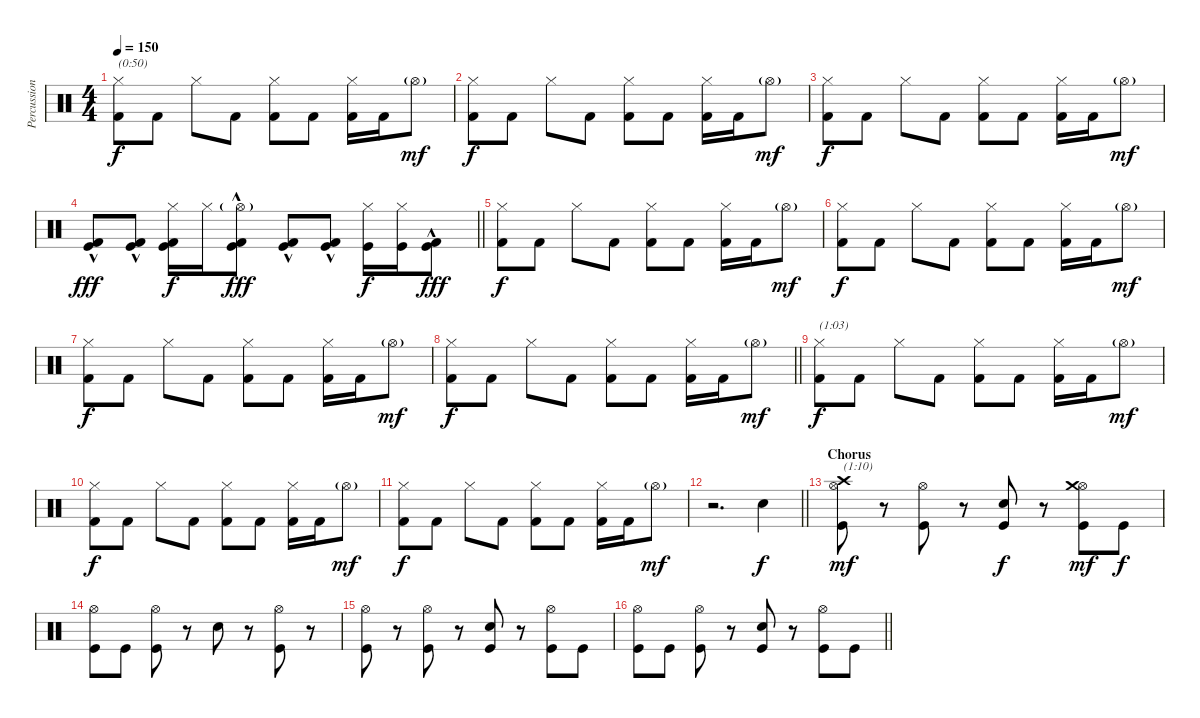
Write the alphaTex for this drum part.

\track ("Percussion" "Percussion") {instrument percussion}
\staff {score}
\articulation defaults
\ts (4 4)
\section ("" "")
\tempo 150
\clef neutral
\ks c
("Hi-Hat (closed)" "Kick (hit) 2").8{txt "(0:50)" dy f} "Kick (hit) 2".8 "Hi-Hat (closed)".8 "Kick (hit) 2".8 ("Hi-Hat (closed)" "Kick (hit) 2").8 "Kick (hit) 2".8 ("Hi-Hat (closed)" "Kick (hit) 2").16 "Kick (hit) 2".16 "Hi-Hat (open)"{g}.8{dy mf} |
("Hi-Hat (closed)" "Kick (hit) 2").8{dy f} "Kick (hit) 2".8 "Hi-Hat (closed)".8 "Kick (hit) 2".8 ("Hi-Hat (closed)" "Kick (hit) 2").8 "Kick (hit) 2".8 ("Hi-Hat (closed)" "Kick (hit) 2").16 "Kick (hit) 2".16 "Hi-Hat (open)"{g}.8{dy mf} |
("Hi-Hat (closed)" "Kick (hit) 2").8{dy f} "Kick (hit) 2".8 "Hi-Hat (closed)".8 "Kick (hit) 2".8 ("Hi-Hat (closed)" "Kick (hit) 2").8 "Kick (hit) 2".8 ("Hi-Hat (closed)" "Kick (hit) 2").16 "Kick (hit) 2".16 "Hi-Hat (open)"{g}.8{dy mf} |
\barLineRight lightlight
("Kick (hit)" "Kick (hit) 2"{hac}).8{dy fff} ("Kick (hit)" "Kick (hit) 2"{hac}).8 ("Hi-Hat (closed)" "Kick (hit)" "Kick (hit) 2").16{dy f} "Hi-Hat (closed)".16 ("Hi-Hat (open)"{g} "Kick (hit)" "Kick (hit) 2"{hac}).8{dy fff} ("Kick (hit)" "Kick (hit) 2"{hac}).8 ("Kick (hit)" "Kick (hit) 2"{hac}).8 ("Hi-Hat (closed)" "Kick (hit)").16{dy f} ("Hi-Hat (closed)" "Kick (hit)").16 ("Kick (hit)" "Kick (hit) 2"{hac}).8{dy fff} |
\section ("" "")
("Hi-Hat (closed)" "Kick (hit) 2").8{dy f} "Kick (hit) 2".8 "Hi-Hat (closed)".8 "Kick (hit) 2".8 ("Hi-Hat (closed)" "Kick (hit) 2").8 "Kick (hit) 2".8 ("Hi-Hat (closed)" "Kick (hit) 2").16 "Kick (hit) 2".16 "Hi-Hat (open)"{g}.8{dy mf} |
("Hi-Hat (closed)" "Kick (hit) 2").8{dy f} "Kick (hit) 2".8 "Hi-Hat (closed)".8 "Kick (hit) 2".8 ("Hi-Hat (closed)" "Kick (hit) 2").8 "Kick (hit) 2".8 ("Hi-Hat (closed)" "Kick (hit) 2").16 "Kick (hit) 2".16 "Hi-Hat (open)"{g}.8{dy mf} |
("Hi-Hat (closed)" "Kick (hit) 2").8{dy f} "Kick (hit) 2".8 "Hi-Hat (closed)".8 "Kick (hit) 2".8 ("Hi-Hat (closed)" "Kick (hit) 2").8 "Kick (hit) 2".8 ("Hi-Hat (closed)" "Kick (hit) 2").16 "Kick (hit) 2".16 "Hi-Hat (open)"{g}.8{dy mf} |
\barLineRight lightlight
("Hi-Hat (closed)" "Kick (hit) 2").8{dy f} "Kick (hit) 2".8 "Hi-Hat (closed)".8 "Kick (hit) 2".8 ("Hi-Hat (closed)" "Kick (hit) 2").8 "Kick (hit) 2".8 ("Hi-Hat (closed)" "Kick (hit) 2").16 "Kick (hit) 2".16 "Hi-Hat (open)"{g}.8{dy mf} |
\section ("" "")
("Hi-Hat (closed)" "Kick (hit) 2").8{txt "(1:03)" dy f} "Kick (hit) 2".8 "Hi-Hat (closed)".8 "Kick (hit) 2".8 ("Hi-Hat (closed)" "Kick (hit) 2").8 "Kick (hit) 2".8 ("Hi-Hat (closed)" "Kick (hit) 2").16 "Kick (hit) 2".16 "Hi-Hat (open)"{g}.8{dy mf} |
("Hi-Hat (closed)" "Kick (hit) 2").8{dy f} "Kick (hit) 2".8 "Hi-Hat (closed)".8 "Kick (hit) 2".8 ("Hi-Hat (closed)" "Kick (hit) 2").8 "Kick (hit) 2".8 ("Hi-Hat (closed)" "Kick (hit) 2").16 "Kick (hit) 2".16 "Hi-Hat (open)"{g}.8{dy mf} |
("Hi-Hat (closed)" "Kick (hit) 2").8{dy f} "Kick (hit) 2".8 "Hi-Hat (closed)".8 "Kick (hit) 2".8 ("Hi-Hat (closed)" "Kick (hit) 2").8 "Kick (hit) 2".8 ("Hi-Hat (closed)" "Kick (hit) 2").16 "Kick (hit) 2".16 "Hi-Hat (open)"{g}.8{dy mf} |
\barLineRight lightlight
r.2{d} "Snare (hit) 2".4{dy f} |
\section ("" "Chorus")
("Hi-Hat (open)" "Crash high (hit)" "Kick (hit)").8{txt "(1:10)" dy mf} r.8 ("Hi-Hat (open)" "Kick (hit)").8 r.8 ("Snare (hit) 2" "Kick (hit)").8{dy f} r.8 ("Hi-Hat (open)" "Crash medium (hit)" "Kick (hit)").8{dy mf} "Kick (hit)".8{dy f} |
("Hi-Hat (open)" "Kick (hit)").8 "Kick (hit)".8 ("Hi-Hat (open)" "Kick (hit)").8 r.8 "Snare (hit) 2".8 r.8 ("Hi-Hat (open)" "Kick (hit)").8 r.8 |
("Hi-Hat (open)" "Kick (hit)").8 r.8 ("Hi-Hat (open)" "Kick (hit)").8 r.8 ("Snare (hit) 2" "Kick (hit)").8 r.8 ("Hi-Hat (open)" "Kick (hit)").8 "Kick (hit)".8 |
\barLineRight lightlight
("Hi-Hat (open)" "Kick (hit)").8 "Kick (hit)".8 ("Hi-Hat (open)" "Kick (hit)").8 r.8 ("Snare (hit) 2" "Kick (hit)").8 r.8 ("Hi-Hat (open)" "Kick (hit)").8 "Kick (hit)".8
